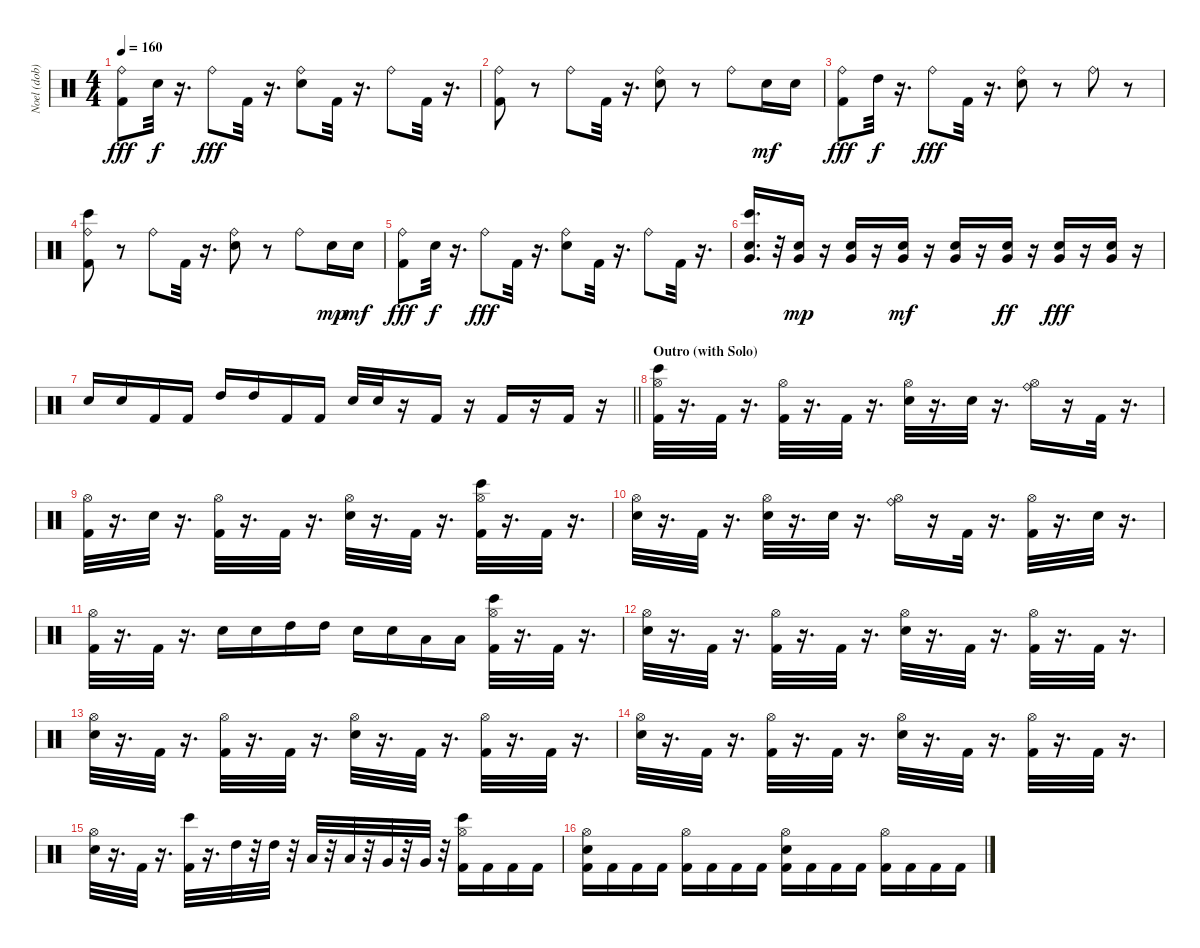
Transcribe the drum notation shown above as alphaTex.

\track ("Noel (dob)" "Noel (dob)") {instrument percussion}
\staff {score}
\articulation defaults
\ts (4 4)
\tempo 160
\clef neutral
\ks c
("Kick (hit) 2" "Ride (bell)").8{dy fff} "Snare (hit) 2".32{dy f} r.16{d} "Ride (bell)".8{dy fff} "Kick (hit) 2".32 r.16{d} ("Ride (bell)" "Snare (hit) 2").8 "Kick (hit) 2".32 r.16{d} "Ride (bell)".8 "Kick (hit) 2".32 r.16{d} |
("Ride (bell)" "Kick (hit) 2").8 r.8 "Ride (bell)".8 "Kick (hit) 2".32 r.16{d} ("Snare (hit) 2" "Ride (bell)").8 r.8 "Ride (bell)".8 "Snare (hit) 2".16{dy mf} "Snare (hit) 2".16 |
("Ride (bell)" "Kick (hit) 2").8{dy fff} "High Tom (hit)".32{dy f} r.16{d} "Ride (bell)".8{dy fff} "Kick (hit) 2".32 r.16{d} ("Snare (hit) 2" "Ride (bell)").8 r.8 "Ride (bell)".8 r.8 |
("Ride (bell)" "Kick (hit) 2" "Bongo High (hit)").8 r.8 "Ride (bell)".8 "Kick (hit) 2".32 r.16{d} ("Snare (hit) 2" "Ride (bell)").8 r.8 "Ride (bell)".8 "Snare (hit) 2".16{dy mp} "Snare (hit) 2".16{dy mf} |
("Ride (bell)" "Kick (hit) 2").8{dy fff} "Snare (hit) 2".32{dy f} r.16{d} "Ride (bell)".8{dy fff} "Kick (hit) 2".32 r.16{d} ("Ride (bell)" "Snare (hit) 2").8 "Kick (hit) 2".32 r.16{d} "Ride (bell)".8 "Kick (hit) 2".32 r.16{d} |
("Very Low Tom (hit)" "Snare (hit) 2" "Bongo High (hit)").16{d} r.32 ("Very Low Tom (hit)" "Snare (hit) 2").16{dy mp} r.16 ("Very Low Tom (hit)" "Snare (hit) 2").16 r.16 ("Very Low Tom (hit)" "Snare (hit) 2").16{dy mf} r.16 ("Very Low Tom (hit)" "Snare (hit) 2").16 r.16 ("Very Low Tom (hit)" "Snare (hit) 2").16{dy ff} r.16 ("Very Low Tom (hit)" "Snare (hit) 2").16{dy fff} r.16 ("Snare (hit) 2" "Very Low Tom (hit)").16 r.16 |
\barLineRight lightlight "Snare (hit) 2".16 "Snare (hit) 2".16 "Kick (hit) 2".16 "Kick (hit) 2".16 "High Tom (hit)".16 "High Tom (hit)".16 "Kick (hit) 2".16 "Kick (hit) 2".16 "Snare (hit) 2".32 "Snare (hit) 2".32
r.16 "Kick (hit) 2".16 r.16 "Kick (hit) 2".16 r.16 "Kick (hit) 2".16 r.16 |
\section ("" "Outro (with Solo)")
("Kick (hit) 2" "Bongo High (hit)" "Hi-Hat (open)").32 r.16{d} "Kick (hit) 2".32 r.16{d} ("Hi-Hat (open)" "Kick (hit) 2").32 r.16{d} "Kick (hit) 2".32 r.16{d} ("Snare (hit) 2" "Hi-Hat (open)").32 r.16{d} "Snare (hit) 2".32 r.16{d} ("Ride (bell)" "Hi-Hat (open)").16 r.16 "Kick (hit) 2".32 r.16{d} |
("Kick (hit) 2" "Hi-Hat (open)").32 r.16{d} "Snare (hit) 2".32 r.16{d} ("Hi-Hat (open)" "Kick (hit) 2").32 r.16{d} "Kick (hit) 2".32 r.16{d} ("Hi-Hat (open)" "Snare (hit) 2").32 r.16{d} "Kick (hit) 2".32 r.16{d} ("Kick (hit) 2" "Hi-Hat (open)" "Bongo High (hit)").32 r.16{d} "Kick (hit) 2".32 r.16{d} |
("Snare (hit) 2" "Hi-Hat (open)").32 r.16{d} "Kick (hit) 2".32 r.16{d} ("Snare (hit) 2" "Hi-Hat (open)").32 r.16{d} "Snare (hit) 2".32 r.16{d} ("Hi-Hat (open)" "Ride (bell)").16 r.16 "Kick (hit) 2".32 r.16{d} ("Hi-Hat (open)" "Kick (hit) 2").32 r.16{d} "Snare (hit) 2".32 r.16{d} |
("Kick (hit) 2" "Hi-Hat (open)").32 r.16{d} "Kick (hit) 2".32 r.16{d} "Snare (hit) 2".16 "Snare (hit) 2".16 "High Tom (hit)".16 "High Tom (hit)".16 "Snare (hit) 2".16 "Snare (hit) 2".16 "Low Tom (hit)".16 "Low Tom (hit)".16 ("Kick (hit) 2" "Bongo High (hit)" "Hi-Hat (open)").32 r.16{d} "Kick (hit) 2".32 r.16{d} |
("Snare (hit) 2" "Hi-Hat (open)").32 r.16{d} "Kick (hit) 2".32 r.16{d} ("Kick (hit) 2" "Hi-Hat (open)").32 r.16{d} "Kick (hit) 2".32 r.16{d} ("Hi-Hat (open)" "Snare (hit) 2").32 r.16{d} "Kick (hit) 2".32 r.16{d} ("Kick (hit) 2" "Hi-Hat (open)").32 r.16{d} "Kick (hit) 2".32 r.16{d} |
("Hi-Hat (open)" "Snare (hit) 2").32 r.16{d} "Kick (hit) 2".32 r.16{d} ("Hi-Hat (open)" "Kick (hit) 2").32 r.16{d} "Kick (hit) 2".32 r.16{d} ("Hi-Hat (open)" "Snare (hit) 2").32 r.16{d} "Kick (hit) 2".32 r.16{d} ("Hi-Hat (open)" "Kick (hit) 2").32 r.16{d} "Kick (hit) 2".32 r.16{d} |
("Snare (hit) 2" "Hi-Hat (open)").32 r.16{d} "Kick (hit) 2".32 r.16{d} ("Kick (hit) 2" "Hi-Hat (open)").32 r.16{d} "Kick (hit) 2".32 r.16{d} ("Hi-Hat (open)" "Snare (hit) 2").32 r.16{d} "Kick (hit) 2".32 r.16{d} ("Kick (hit) 2" "Hi-Hat (open)").32 r.16{d} "Kick (hit) 2".32 r.16{d} |
("Snare (hit) 2" "Hi-Hat (open)").32 r.16{d} "Kick (hit) 2".32 r.16{d} ("Bongo High (hit)" "Kick (hit) 2").32 r.16{d} "High Tom (hit)".32 r.32 "High Tom (hit)".32 r.32 "Low Tom (hit)".32 r.32 "Low Tom (hit)".32 r.32 "Very Low Tom (hit)".32 r.32 "Very Low Tom (hit)".32 r.32 ("Kick (hit) 2" "Hi-Hat (open)" "Bongo High (hit)").16 "Kick (hit) 2".16 "Kick (hit) 2".16 "Kick (hit) 2".16 |
("Kick (hit) 2" "Snare (hit) 2" "Hi-Hat (open)").16 "Kick (hit) 2".16 "Kick (hit) 2".16 "Kick (hit) 2".16 ("Kick (hit) 2" "Hi-Hat (open)").16 "Kick (hit) 2".16 "Kick (hit) 2".16 "Kick (hit) 2".16 ("Hi-Hat (open)" "Kick (hit) 2" "Snare (hit) 2").16 "Kick (hit) 2".16 "Kick (hit) 2".16 "Kick (hit) 2".16 ("Hi-Hat (open)" "Kick (hit) 2").16 "Kick (hit) 2".16 "Kick (hit) 2".16 "Kick (hit) 2".16
